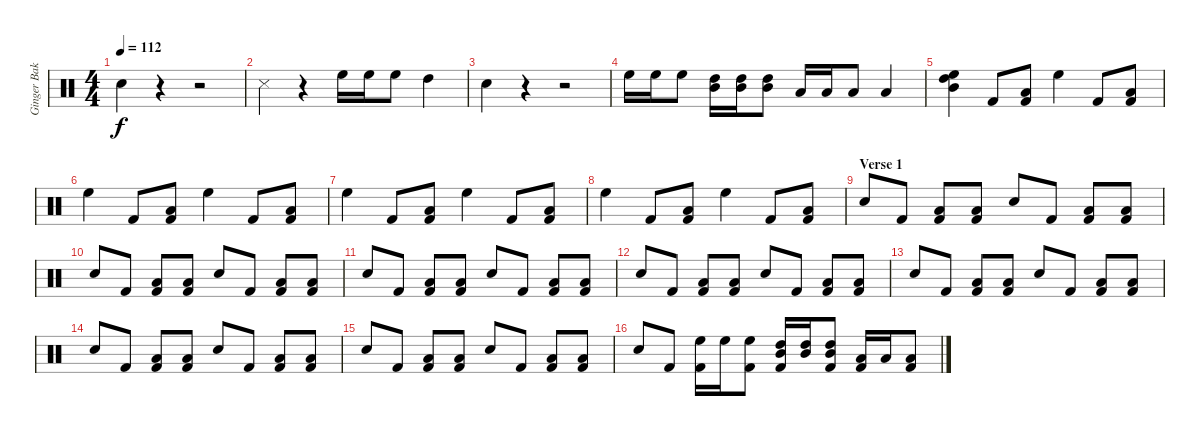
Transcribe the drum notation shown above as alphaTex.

\track ("Ginger Baker" "Ginger Bak") {instrument percussion}
\staff {score}
\articulation defaults
\ts (4 4)
\tempo 112
\clef neutral
\ks c "Snare (hit) 2".4{dy f}
r.4 r.2 |
"Snare (side stick) 3".4 r.4 "High Floor Tom (hit)".16 "High Floor Tom (hit)".16 "High Floor Tom (hit)".8 "High Tom (hit)".4 |
"Snare (hit) 2".4 r.4 r.2 |
"High Floor Tom (hit)".16 "High Floor Tom (hit)".16 "High Floor Tom (hit)".8 ("High Tom (hit)" "Mid Tom (hit)").16 ("High Tom (hit)" "Mid Tom (hit)").16 ("High Tom (hit)" "Mid Tom (hit)").8 "Low Tom (hit)".16 "Low Tom (hit)".16 "Low Tom (hit)".8 "Low Tom (hit)".4 |
("High Floor Tom (hit)" "High Tom (hit)" "Mid Tom (hit)").4 "Kick (hit) 2".8 ("Low Tom (hit)" "Kick (hit) 2").8 "High Floor Tom (hit)".4 "Kick (hit) 2".8 ("Low Tom (hit)" "Kick (hit) 2").8 |
"High Floor Tom (hit)".4 "Kick (hit) 2".8 ("Low Tom (hit)" "Kick (hit) 2").8 "High Floor Tom (hit)".4 "Kick (hit) 2".8 ("Low Tom (hit)" "Kick (hit) 2").8 |
"High Floor Tom (hit)".4 "Kick (hit) 2".8 ("Low Tom (hit)" "Kick (hit) 2").8 "High Floor Tom (hit)".4 "Kick (hit) 2".8 ("Low Tom (hit)" "Kick (hit) 2").8 |
"High Floor Tom (hit)".4 "Kick (hit) 2".8 ("Low Tom (hit)" "Kick (hit) 2").8 "High Floor Tom (hit)".4 "Kick (hit) 2".8 ("Low Tom (hit)" "Kick (hit) 2").8 |
\section ("" "Verse 1")
"Snare (hit) 2".8 "Kick (hit) 2".8 ("Low Tom (hit)" "Kick (hit) 2").8 ("Low Tom (hit)" "Kick (hit) 2").8 "Snare (hit) 2".8 "Kick (hit) 2".8 ("Low Tom (hit)" "Kick (hit) 2").8 ("Low Tom (hit)" "Kick (hit) 2").8 |
"Snare (hit) 2".8 "Kick (hit) 2".8 ("Low Tom (hit)" "Kick (hit) 2").8 ("Low Tom (hit)" "Kick (hit) 2").8 "Snare (hit) 2".8 "Kick (hit) 2".8 ("Low Tom (hit)" "Kick (hit) 2").8 ("Low Tom (hit)" "Kick (hit) 2").8 |
"Snare (hit) 2".8 "Kick (hit) 2".8 ("Low Tom (hit)" "Kick (hit) 2").8 ("Low Tom (hit)" "Kick (hit) 2").8 "Snare (hit) 2".8 "Kick (hit) 2".8 ("Low Tom (hit)" "Kick (hit) 2").8 ("Low Tom (hit)" "Kick (hit) 2").8 |
"Snare (hit) 2".8 "Kick (hit) 2".8 ("Low Tom (hit)" "Kick (hit) 2").8 ("Low Tom (hit)" "Kick (hit) 2").8 "Snare (hit) 2".8 "Kick (hit) 2".8 ("Low Tom (hit)" "Kick (hit) 2").8 ("Low Tom (hit)" "Kick (hit) 2").8 |
"Snare (hit) 2".8 "Kick (hit) 2".8 ("Low Tom (hit)" "Kick (hit) 2").8 ("Low Tom (hit)" "Kick (hit) 2").8 "Snare (hit) 2".8 "Kick (hit) 2".8 ("Low Tom (hit)" "Kick (hit) 2").8 ("Low Tom (hit)" "Kick (hit) 2").8 |
"Snare (hit) 2".8 "Kick (hit) 2".8 ("Low Tom (hit)" "Kick (hit) 2").8 ("Low Tom (hit)" "Kick (hit) 2").8 "Snare (hit) 2".8 "Kick (hit) 2".8 ("Low Tom (hit)" "Kick (hit) 2").8 ("Low Tom (hit)" "Kick (hit) 2").8 |
"Snare (hit) 2".8 "Kick (hit) 2".8 ("Low Tom (hit)" "Kick (hit) 2").8 ("Low Tom (hit)" "Kick (hit) 2").8 "Snare (hit) 2".8 "Kick (hit) 2".8 ("Low Tom (hit)" "Kick (hit) 2").8 ("Low Tom (hit)" "Kick (hit) 2").8 |
"Snare (hit) 2".8 "Kick (hit) 2".8 ("High Floor Tom (hit)" "Kick (hit) 2").16 "High Floor Tom (hit)".16 ("High Floor Tom (hit)" "Kick (hit) 2").8 ("High Tom (hit)" "Mid Tom (hit)" "Kick (hit) 2").16 ("High Tom (hit)" "Mid Tom (hit)").16 ("High Tom (hit)" "Mid Tom (hit)" "Kick (hit) 2").8 ("Low Tom (hit)" "Kick (hit) 2").16 "Low Tom (hit)".16 ("Low Tom (hit)" "Kick (hit) 2").8
